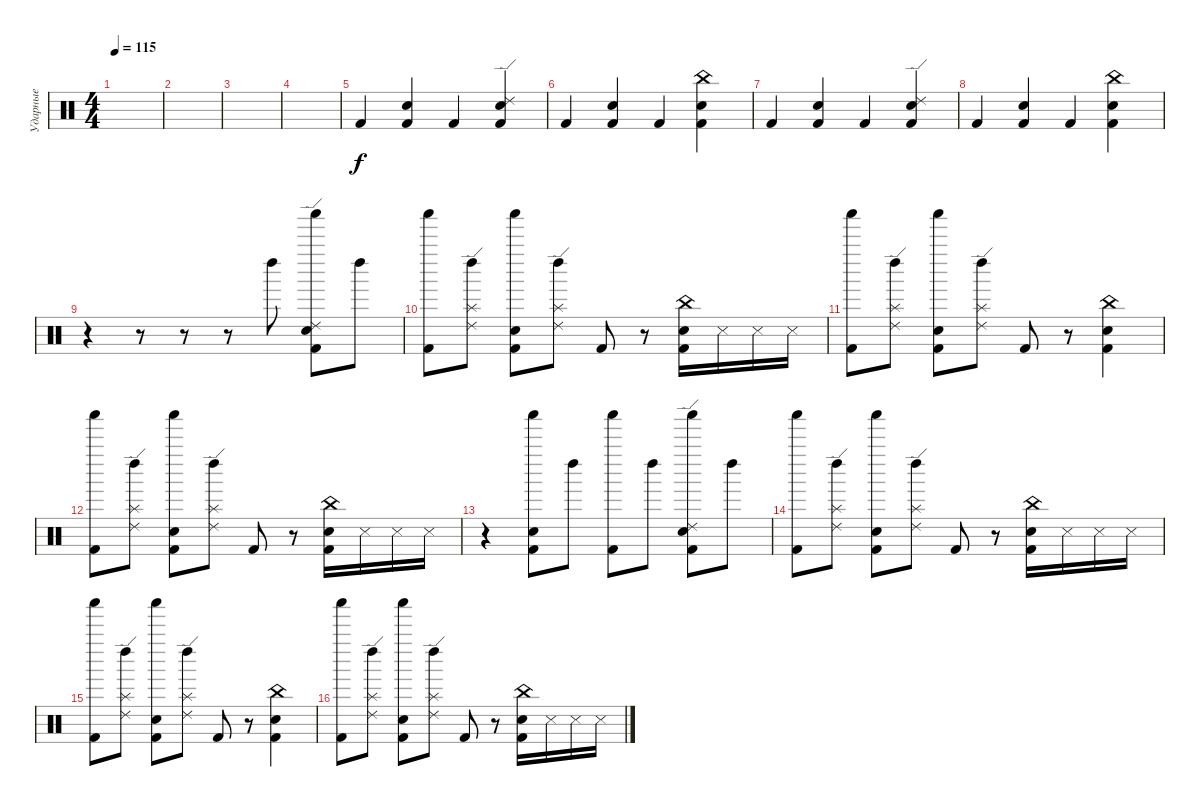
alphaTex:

\track ("Ударные" "Ударные") {instrument percussion}
\staff {score}
\articulation defaults
\ts (4 4)
\tempo 115
\clef neutral
\ks c
|
|
|
|
"Kick (hit) 2".4 ("Kick (hit) 2" "Snare (hit) 2").4 "Kick (hit) 2".4 ("Kick (hit) 2" "Ride (edge) 2" "Snare (hit) 2").4 |
"Kick (hit) 2".4 ("Kick (hit) 2" "Snare (hit) 2").4 "Kick (hit) 2".4 ("Kick (hit) 2" "China (hit)" "Snare (hit) 2").4 |
"Kick (hit) 2".4 ("Kick (hit) 2" "Snare (hit) 2").4 "Kick (hit) 2".4 ("Kick (hit) 2" "Ride (edge) 2" "Snare (hit) 2").4 |
"Kick (hit) 2".4 ("Kick (hit) 2" "Snare (hit) 2").4 "Kick (hit) 2".4 ("Kick (hit) 2" "China (hit)" "Snare (hit) 2").4 |
r.4 r.8 r.8 r.8 "Left Maraca (hit)".8 ("Kick (hit) 2" "Ride (edge) 2" "Snare (hit) 2" "Shaker (hit)").8 "Left Maraca (hit)".8 |
("Kick (hit) 2" "Shaker (hit)").8 ("Left Maraca (hit)" "Ride (edge) 2" "Splash (hit)").8 ("Kick (hit) 2" "Snare (hit) 2" "Shaker (hit)").8 ("Left Maraca (hit)" "Ride (edge) 2" "Splash (hit)").8 "Kick (hit) 2".8 r.8 ("Kick (hit) 2" "China (hit)" "Snare (hit) 2").16 "Snare (side stick) 3".16 "Snare (side stick) 3".16 "Snare (side stick) 3".16 |
("Kick (hit) 2" "Shaker (hit)").8 ("Left Maraca (hit)" "Ride (edge) 2" "Splash (hit)").8 ("Kick (hit) 2" "Snare (hit) 2" "Shaker (hit)").8 ("Left Maraca (hit)" "Ride (edge) 2" "Splash (hit)").8 "Kick (hit) 2".8 r.8 ("Kick (hit) 2" "China (hit)" "Snare (hit) 2").4 |
("Kick (hit) 2" "Shaker (hit)").8 ("Left Maraca (hit)" "Ride (edge) 2" "Splash (hit)").8 ("Kick (hit) 2" "Snare (hit) 2" "Shaker (hit)").8 ("Left Maraca (hit)" "Ride (edge) 2" "Splash (hit)").8 "Kick (hit) 2".8 r.8 ("Kick (hit) 2" "China (hit)" "Snare (hit) 2").16 "Snare (side stick) 3".16 "Snare (side stick) 3".16 "Snare (side stick) 3".16 |
r.4 ("Kick (hit) 2" "Snare (hit) 2" "Shaker (hit)").8 "Left Maraca (hit)".8 ("Kick (hit) 2" "Shaker (hit)").8 "Left Maraca (hit)".8 ("Kick (hit) 2" "Ride (edge) 2" "Snare (hit) 2" "Shaker (hit)").8 "Left Maraca (hit)".8 |
("Kick (hit) 2" "Shaker (hit)").8 ("Left Maraca (hit)" "Ride (edge) 2" "Splash (hit)").8 ("Kick (hit) 2" "Snare (hit) 2" "Shaker (hit)").8 ("Left Maraca (hit)" "Ride (edge) 2" "Splash (hit)").8 "Kick (hit) 2".8 r.8 ("Kick (hit) 2" "China (hit)" "Snare (hit) 2").16 "Snare (side stick) 3".16 "Snare (side stick) 3".16 "Snare (side stick) 3".16 |
("Kick (hit) 2" "Shaker (hit)").8 ("Left Maraca (hit)" "Ride (edge) 2" "Splash (hit)").8 ("Kick (hit) 2" "Snare (hit) 2" "Shaker (hit)").8 ("Left Maraca (hit)" "Ride (edge) 2" "Splash (hit)").8 "Kick (hit) 2".8 r.8 ("Kick (hit) 2" "China (hit)" "Snare (hit) 2").4 |
("Kick (hit) 2" "Shaker (hit)").8 ("Left Maraca (hit)" "Ride (edge) 2" "Splash (hit)").8 ("Kick (hit) 2" "Snare (hit) 2" "Shaker (hit)").8 ("Left Maraca (hit)" "Ride (edge) 2" "Splash (hit)").8 "Kick (hit) 2".8 r.8 ("Kick (hit) 2" "China (hit)" "Snare (hit) 2").16 "Snare (side stick) 3".16 "Snare (side stick) 3".16 "Snare (side stick) 3".16
